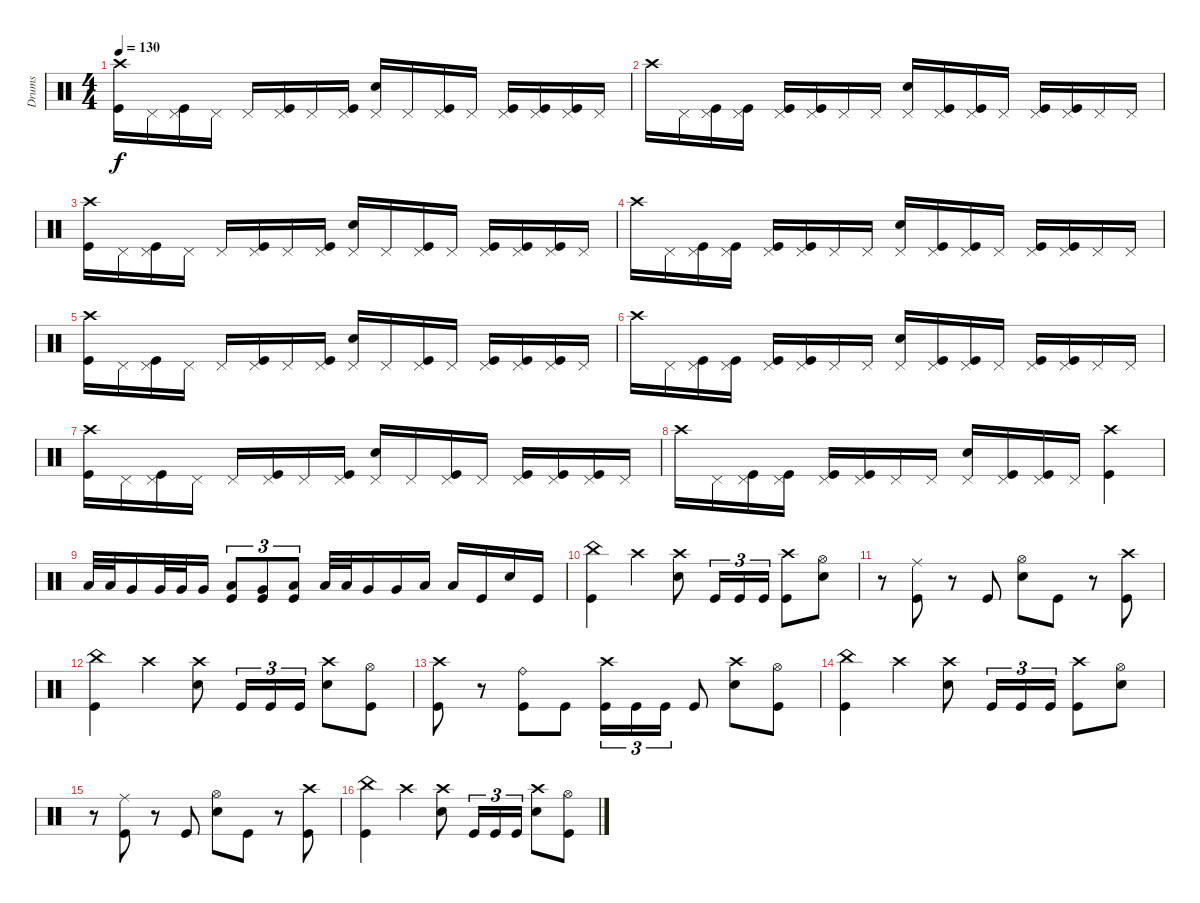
\track ("Drums" "Drums") {instrument percussion}
\staff {score}
\articulation defaults
\ts (4 4)
\tempo 130
\clef neutral
\ks c
("Crash high (hit)" "Kick (hit)").16{dy f} "Pedal Hi-Hat (hit)".16 ("Pedal Hi-Hat (hit)" "Kick (hit)").16 "Pedal Hi-Hat (hit)".16 "Pedal Hi-Hat (hit)".16 ("Pedal Hi-Hat (hit)" "Kick (hit)").16 "Pedal Hi-Hat (hit)".16 ("Pedal Hi-Hat (hit)" "Kick (hit)").16 ("Pedal Hi-Hat (hit)" "Snare (hit) 2").16 "Pedal Hi-Hat (hit)".16 ("Pedal Hi-Hat (hit)" "Kick (hit)").16 "Pedal Hi-Hat (hit)".16 ("Pedal Hi-Hat (hit)" "Kick (hit)").16 ("Pedal Hi-Hat (hit)" "Kick (hit)").16 ("Pedal Hi-Hat (hit)" "Kick (hit)").16 "Pedal Hi-Hat (hit)".16 |
"Crash high (hit)".16 "Pedal Hi-Hat (hit)".16 ("Pedal Hi-Hat (hit)" "Kick (hit)").16 ("Pedal Hi-Hat (hit)" "Kick (hit)").16 ("Pedal Hi-Hat (hit)" "Kick (hit)").16 ("Pedal Hi-Hat (hit)" "Kick (hit)").16 "Pedal Hi-Hat (hit)".16 "Pedal Hi-Hat (hit)".16 ("Pedal Hi-Hat (hit)" "Snare (hit) 2").16 ("Pedal Hi-Hat (hit)" "Kick (hit)").16 ("Pedal Hi-Hat (hit)" "Kick (hit)").16 "Pedal Hi-Hat (hit)".16 ("Pedal Hi-Hat (hit)" "Kick (hit)").16 ("Pedal Hi-Hat (hit)" "Kick (hit)").16 "Pedal Hi-Hat (hit)".16 "Pedal Hi-Hat (hit)".16 |
("Crash high (hit)" "Kick (hit)").16 "Pedal Hi-Hat (hit)".16 ("Pedal Hi-Hat (hit)" "Kick (hit)").16 "Pedal Hi-Hat (hit)".16 "Pedal Hi-Hat (hit)".16 ("Pedal Hi-Hat (hit)" "Kick (hit)").16 "Pedal Hi-Hat (hit)".16 ("Pedal Hi-Hat (hit)" "Kick (hit)").16 ("Pedal Hi-Hat (hit)" "Snare (hit) 2").16 "Pedal Hi-Hat (hit)".16 ("Pedal Hi-Hat (hit)" "Kick (hit)").16 "Pedal Hi-Hat (hit)".16 ("Pedal Hi-Hat (hit)" "Kick (hit)").16 ("Pedal Hi-Hat (hit)" "Kick (hit)").16 ("Pedal Hi-Hat (hit)" "Kick (hit)").16 "Pedal Hi-Hat (hit)".16 |
"Crash high (hit)".16 "Pedal Hi-Hat (hit)".16 ("Pedal Hi-Hat (hit)" "Kick (hit)").16 ("Pedal Hi-Hat (hit)" "Kick (hit)").16 ("Pedal Hi-Hat (hit)" "Kick (hit)").16 ("Pedal Hi-Hat (hit)" "Kick (hit)").16 "Pedal Hi-Hat (hit)".16 "Pedal Hi-Hat (hit)".16 ("Pedal Hi-Hat (hit)" "Snare (hit) 2").16 ("Pedal Hi-Hat (hit)" "Kick (hit)").16 ("Pedal Hi-Hat (hit)" "Kick (hit)").16 "Pedal Hi-Hat (hit)".16 ("Pedal Hi-Hat (hit)" "Kick (hit)").16 ("Pedal Hi-Hat (hit)" "Kick (hit)").16 "Pedal Hi-Hat (hit)".16 "Pedal Hi-Hat (hit)".16 |
("Crash high (hit)" "Kick (hit)").16 "Pedal Hi-Hat (hit)".16 ("Pedal Hi-Hat (hit)" "Kick (hit)").16 "Pedal Hi-Hat (hit)".16 "Pedal Hi-Hat (hit)".16 ("Pedal Hi-Hat (hit)" "Kick (hit)").16 "Pedal Hi-Hat (hit)".16 ("Pedal Hi-Hat (hit)" "Kick (hit)").16 ("Pedal Hi-Hat (hit)" "Snare (hit) 2").16 "Pedal Hi-Hat (hit)".16 ("Pedal Hi-Hat (hit)" "Kick (hit)").16 "Pedal Hi-Hat (hit)".16 ("Pedal Hi-Hat (hit)" "Kick (hit)").16 ("Pedal Hi-Hat (hit)" "Kick (hit)").16 ("Pedal Hi-Hat (hit)" "Kick (hit)").16 "Pedal Hi-Hat (hit)".16 |
"Crash high (hit)".16 "Pedal Hi-Hat (hit)".16 ("Pedal Hi-Hat (hit)" "Kick (hit)").16 ("Pedal Hi-Hat (hit)" "Kick (hit)").16 ("Pedal Hi-Hat (hit)" "Kick (hit)").16 ("Pedal Hi-Hat (hit)" "Kick (hit)").16 "Pedal Hi-Hat (hit)".16 "Pedal Hi-Hat (hit)".16 ("Pedal Hi-Hat (hit)" "Snare (hit) 2").16 ("Pedal Hi-Hat (hit)" "Kick (hit)").16 ("Pedal Hi-Hat (hit)" "Kick (hit)").16 "Pedal Hi-Hat (hit)".16 ("Pedal Hi-Hat (hit)" "Kick (hit)").16 ("Pedal Hi-Hat (hit)" "Kick (hit)").16 "Pedal Hi-Hat (hit)".16 "Pedal Hi-Hat (hit)".16 |
("Crash high (hit)" "Kick (hit)").16 "Pedal Hi-Hat (hit)".16 ("Pedal Hi-Hat (hit)" "Kick (hit)").16 "Pedal Hi-Hat (hit)".16 "Pedal Hi-Hat (hit)".16 ("Pedal Hi-Hat (hit)" "Kick (hit)").16 "Pedal Hi-Hat (hit)".16 ("Pedal Hi-Hat (hit)" "Kick (hit)").16 ("Pedal Hi-Hat (hit)" "Snare (hit) 2").16 "Pedal Hi-Hat (hit)".16 ("Pedal Hi-Hat (hit)" "Kick (hit)").16 "Pedal Hi-Hat (hit)".16 ("Pedal Hi-Hat (hit)" "Kick (hit)").16 ("Pedal Hi-Hat (hit)" "Kick (hit)").16 ("Pedal Hi-Hat (hit)" "Kick (hit)").16 "Pedal Hi-Hat (hit)".16 |
"Crash high (hit)".16 "Pedal Hi-Hat (hit)".16 ("Pedal Hi-Hat (hit)" "Kick (hit)").16 ("Pedal Hi-Hat (hit)" "Kick (hit)").16 ("Pedal Hi-Hat (hit)" "Kick (hit)").16 ("Pedal Hi-Hat (hit)" "Kick (hit)").16 "Pedal Hi-Hat (hit)".16 "Pedal Hi-Hat (hit)".16 ("Pedal Hi-Hat (hit)" "Snare (hit) 2").16 ("Pedal Hi-Hat (hit)" "Kick (hit)").16 ("Pedal Hi-Hat (hit)" "Kick (hit)").16 "Pedal Hi-Hat (hit)".16 ("Crash high (hit)" "Kick (hit)").4 |
"Low Tom (hit)".32 "Low Tom (hit)".32 "Very Low Tom (hit)".16 "Very Low Tom (hit)".32 "Very Low Tom (hit)".32 "Very Low Tom (hit)".16 ("Low Tom (hit)" "Kick (hit)").8{tu (3 2)} ("Very Low Tom (hit)" "Kick (hit)").8{tu (3 2)} ("Low Floor Tom (hit)" "Kick (hit)").8{tu (3 2)} "Low Tom (hit)".32 "Low Tom (hit)".32 "Very Low Tom (hit)".16 "Very Low Tom (hit)".16 "Low Floor Tom (hit)".16 "Low Floor Tom (hit)".16 "Kick (hit)".16 "Snare (hit) 2".16 "Kick (hit)".16 |
("China (hit)" "Kick (hit)").4 "Crash high (hit)".4 ("Crash high (hit)" "Snare (hit) 2").8 "Kick (hit)".16{tu (3 2)} "Kick (hit)".16{tu (3 2)} "Kick (hit)".16{tu (3 2)} ("Crash high (hit)" "Kick (hit)").8 ("Hi-Hat (open)" "Snare (hit) 2").8 |
r.8 ("Ride (middle)" "Kick (hit)").8 r.8 "Kick (hit)".8 ("Hi-Hat (open)" "Snare (hit) 2").8 "Kick (hit)".8 r.8 ("Crash high (hit)" "Kick (hit)").8 |
("China (hit)" "Kick (hit)").4 "Crash high (hit)".4 ("Crash high (hit)" "Snare (hit) 2").8 "Kick (hit)".16{tu (3 2)} "Kick (hit)".16{tu (3 2)} "Kick (hit)".16{tu (3 2)} ("Crash high (hit)" "Snare (hit) 2").8 ("Hi-Hat (open)" "Kick (hit)").8 |
("Crash high (hit)" "Kick (hit)").8 r.8 ("Ride (bell)" "Kick (hit)").8 "Kick (hit)".8 ("Crash high (hit)" "Kick (hit)").16{tu (3 2)} "Kick (hit)".16{tu (3 2)} "Kick (hit)".16{tu (3 2)} "Kick (hit)".8 ("Crash high (hit)" "Snare (hit) 2").8 ("Hi-Hat (open)" "Kick (hit)").8 |
("China (hit)" "Kick (hit)").4 "Crash high (hit)".4 ("Crash high (hit)" "Snare (hit) 2").8 "Kick (hit)".16{tu (3 2)} "Kick (hit)".16{tu (3 2)} "Kick (hit)".16{tu (3 2)} ("Crash high (hit)" "Kick (hit)").8 ("Hi-Hat (open)" "Snare (hit) 2").8 |
r.8 ("Ride (middle)" "Kick (hit)").8 r.8 "Kick (hit)".8 ("Hi-Hat (open)" "Snare (hit) 2").8 "Kick (hit)".8 r.8 ("Crash high (hit)" "Kick (hit)").8 |
("China (hit)" "Kick (hit)").4 "Crash high (hit)".4 ("Crash high (hit)" "Snare (hit) 2").8 "Kick (hit)".16{tu (3 2)} "Kick (hit)".16{tu (3 2)} "Kick (hit)".16{tu (3 2)} ("Crash high (hit)" "Snare (hit) 2").8 ("Hi-Hat (open)" "Kick (hit)").8
